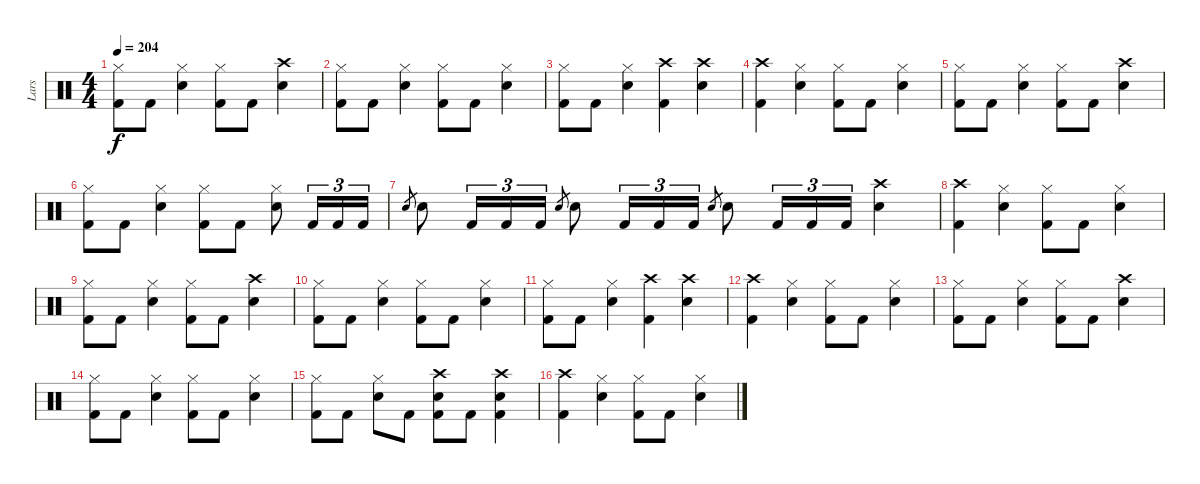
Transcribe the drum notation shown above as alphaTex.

\track ("Lars" "Lars") {instrument percussion}
\staff {score}
\articulation defaults
\ts (4 4)
\tempo 204
\clef neutral
\ks c
("Hi-Hat (closed)" "Kick (hit) 2").8{dy f} "Kick (hit) 2".8 ("Hi-Hat (closed)" "Snare (hit) 2").4 ("Hi-Hat (closed)" "Kick (hit) 2").8 "Kick (hit) 2".8 ("Crash high (hit)" "Snare (hit) 2").4 |
("Hi-Hat (closed)" "Kick (hit) 2").8 "Kick (hit) 2".8 ("Hi-Hat (closed)" "Snare (hit) 2").4 ("Hi-Hat (closed)" "Kick (hit) 2").8 "Kick (hit) 2".8 ("Hi-Hat (closed)" "Snare (hit) 2").4 |
("Hi-Hat (closed)" "Kick (hit) 2").8 "Kick (hit) 2".8 ("Hi-Hat (closed)" "Snare (hit) 2").4 ("Crash high (hit)" "Kick (hit) 2").4 ("Crash high (hit)" "Snare (hit) 2").4 |
("Crash high (hit)" "Kick (hit) 2").4 ("Hi-Hat (closed)" "Snare (hit) 2").4 ("Hi-Hat (closed)" "Kick (hit) 2").8 "Kick (hit) 2".8 ("Hi-Hat (closed)" "Snare (hit) 2").4 |
("Hi-Hat (closed)" "Kick (hit) 2").8 "Kick (hit) 2".8 ("Hi-Hat (closed)" "Snare (hit) 2").4 ("Hi-Hat (closed)" "Kick (hit) 2").8 "Kick (hit) 2".8 ("Crash high (hit)" "Snare (hit) 2").4 |
("Hi-Hat (closed)" "Kick (hit) 2").8 "Kick (hit) 2".8 ("Hi-Hat (closed)" "Snare (hit) 2").4 ("Hi-Hat (closed)" "Kick (hit) 2").8 "Kick (hit) 2".8 ("Hi-Hat (closed)" "Snare (hit) 2").8 "Kick (hit) 2".16{tu (3 2)} "Kick (hit) 2".16{tu (3 2)} "Kick (hit) 2".16{tu (3 2)} |
"Snare (hit) 2".8{gr} "Snare (hit) 2".8 "Kick (hit) 2".16{tu (3 2)} "Kick (hit) 2".16{tu (3 2)} "Kick (hit) 2".16{tu (3 2)} "Snare (hit) 2".8{gr} "Snare (hit) 2".8 "Kick (hit) 2".16{tu (3 2)} "Kick (hit) 2".16{tu (3 2)} "Kick (hit) 2".16{tu (3 2)} "Snare (hit) 2".8{gr} "Snare (hit) 2".8 "Kick (hit) 2".16{tu (3 2)} "Kick (hit) 2".16{tu (3 2)} "Kick (hit) 2".16{tu (3 2)} ("Crash high (hit)" "Snare (hit) 2").4 |
("Crash high (hit)" "Kick (hit) 2").4 ("Hi-Hat (closed)" "Snare (hit) 2").4 ("Hi-Hat (closed)" "Kick (hit) 2").8 "Kick (hit) 2".8 ("Hi-Hat (closed)" "Snare (hit) 2").4 |
("Hi-Hat (closed)" "Kick (hit) 2").8 "Kick (hit) 2".8 ("Hi-Hat (closed)" "Snare (hit) 2").4 ("Hi-Hat (closed)" "Kick (hit) 2").8 "Kick (hit) 2".8 ("Crash high (hit)" "Snare (hit) 2").4 |
("Hi-Hat (closed)" "Kick (hit) 2").8 "Kick (hit) 2".8 ("Hi-Hat (closed)" "Snare (hit) 2").4 ("Hi-Hat (closed)" "Kick (hit) 2").8 "Kick (hit) 2".8 ("Hi-Hat (closed)" "Snare (hit) 2").4 |
("Hi-Hat (closed)" "Kick (hit) 2").8 "Kick (hit) 2".8 ("Hi-Hat (closed)" "Snare (hit) 2").4 ("Crash high (hit)" "Kick (hit) 2").4 ("Crash high (hit)" "Snare (hit) 2").4 |
("Crash high (hit)" "Kick (hit) 2").4 ("Hi-Hat (closed)" "Snare (hit) 2").4 ("Hi-Hat (closed)" "Kick (hit) 2").8 "Kick (hit) 2".8 ("Hi-Hat (closed)" "Snare (hit) 2").4 |
("Hi-Hat (closed)" "Kick (hit) 2").8 "Kick (hit) 2".8 ("Hi-Hat (closed)" "Snare (hit) 2").4 ("Hi-Hat (closed)" "Kick (hit) 2").8 "Kick (hit) 2".8 ("Crash high (hit)" "Snare (hit) 2").4 |
("Hi-Hat (closed)" "Kick (hit) 2").8 "Kick (hit) 2".8 ("Hi-Hat (closed)" "Snare (hit) 2").4 ("Hi-Hat (closed)" "Kick (hit) 2").8 "Kick (hit) 2".8 ("Hi-Hat (closed)" "Snare (hit) 2").4 |
("Hi-Hat (closed)" "Kick (hit) 2").8 "Kick (hit) 2".8 ("Hi-Hat (closed)" "Snare (hit) 2").8 "Kick (hit) 2".8 ("Crash high (hit)" "Snare (hit) 2" "Kick (hit) 2").8 "Kick (hit) 2".8 ("Crash high (hit)" "Snare (hit) 2" "Kick (hit) 2").4 |
("Crash high (hit)" "Kick (hit) 2").4 ("Hi-Hat (closed)" "Snare (hit) 2").4 ("Hi-Hat (closed)" "Kick (hit) 2").8 "Kick (hit) 2".8 ("Hi-Hat (closed)" "Snare (hit) 2").4
